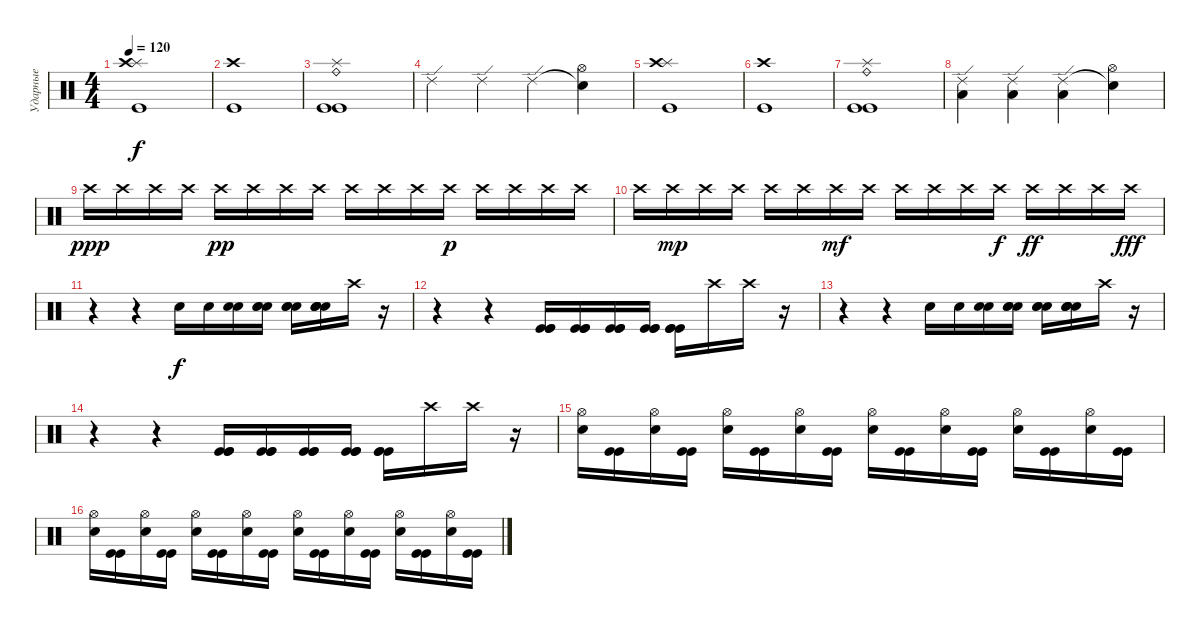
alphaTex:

\track ("Ударные" "Ударные") {instrument percussion}
\staff {score}
\articulation defaults
\ts (4 4)
\tempo 120
\clef neutral
\ks c
("Splash (hit)" "Crash high (hit)" "Kick (hit)").1{dy f} |
("Crash high (hit)" "Kick (hit)").1 |
("Splash (hit)" "Ride (bell)" "Kick (hit)" "Kick (hit)").1 |
"Ride (edge) 2".4 "Ride (edge) 2".4 "Ride (edge) 2".4 ("Snare (hit)"{t} "Hi-Hat (open)").4 |
("Splash (hit)" "Crash high (hit)" "Kick (hit)").1 |
("Crash high (hit)" "Kick (hit)").1 |
("Splash (hit)" "Ride (bell)" "Kick (hit)" "Kick (hit)").1 |
("Ride (edge) 2" "Low Tom (hit)").4 ("Ride (edge) 2" "Low Tom (hit)").4 ("Ride (edge) 2" "Low Tom (hit)").4 ("Snare (hit)"{t} "Hi-Hat (open)").4 |
"Crash high (hit)".16{dy ppp} "Crash high (hit)".16 "Crash high (hit)".16 "Crash high (hit)".16 "Crash high (hit)".16{dy pp} "Crash high (hit)".16 "Crash high (hit)".16 "Crash high (hit)".16 "Crash high (hit)".16 "Crash high (hit)".16 "Crash high (hit)".16 "Crash high (hit)".16{dy p} "Crash high (hit)".16 "Crash high (hit)".16 "Crash high (hit)".16 "Crash high (hit)".16 |
"Crash high (hit)".16 "Crash high (hit)".16{dy mp} "Crash high (hit)".16 "Crash high (hit)".16 "Crash high (hit)".16 "Crash high (hit)".16 "Crash high (hit)".16{dy mf} "Crash high (hit)".16 "Crash high (hit)".16 "Crash high (hit)".16 "Crash high (hit)".16 "Crash high (hit)".16{dy f} "Crash high (hit)".16{dy ff} "Crash high (hit)".16 "Crash high (hit)".16 "Crash high (hit)".16{dy fff} |
r.4 r.4 "Snare (hit) 2".16{dy f} "Snare (hit) 2".16 ("Snare (hit) 2" "Snare (hit) 2").16 ("Snare (hit) 2" "Snare (hit) 2" "Snare (hit) 2").16 ("Snare (hit) 2" "Snare (hit) 2" "Snare (hit) 2").16 ("Snare (hit) 2" "Snare (hit) 2" "Snare (hit) 2" "Snare (hit) 2").16 "Crash high (hit)".16 r.16 |
r.4 r.4 ("Kick (hit)" "Kick (hit)" "Kick (hit)").16 ("Kick (hit)" "Kick (hit)" "Kick (hit)").16 ("Kick (hit)" "Kick (hit)" "Kick (hit)").16 ("Kick (hit)" "Kick (hit)" "Kick (hit)").16 ("Kick (hit)" "Kick (hit)" "Kick (hit)").16 "Crash high (hit)".16 "Crash high (hit)".16 r.16 |
r.4 r.4 "Snare (hit) 2".16 "Snare (hit) 2".16 ("Snare (hit) 2" "Snare (hit) 2").16 ("Snare (hit) 2" "Snare (hit) 2" "Snare (hit) 2").16 ("Snare (hit) 2" "Snare (hit) 2" "Snare (hit) 2").16 ("Snare (hit) 2" "Snare (hit) 2" "Snare (hit) 2" "Snare (hit) 2").16 "Crash high (hit)".16 r.16 |
r.4 r.4 ("Kick (hit)" "Kick (hit)" "Kick (hit)").16 ("Kick (hit)" "Kick (hit)" "Kick (hit)").16 ("Kick (hit)" "Kick (hit)" "Kick (hit)").16 ("Kick (hit)" "Kick (hit)" "Kick (hit)").16 ("Kick (hit)" "Kick (hit)" "Kick (hit)").16 "Crash high (hit)".16 "Crash high (hit)".16 r.16 |
("Hi-Hat (open)" "Snare (hit) 2").16 ("Kick (hit)" "Kick (hit)").16 ("Hi-Hat (open)" "Snare (hit) 2").16 ("Kick (hit)" "Kick (hit)").16 ("Hi-Hat (open)" "Snare (hit) 2").16 ("Kick (hit)" "Kick (hit)").16 ("Hi-Hat (open)" "Snare (hit) 2").16 ("Kick (hit)" "Kick (hit)").16 ("Hi-Hat (open)" "Snare (hit) 2").16 ("Kick (hit)" "Kick (hit)").16 ("Hi-Hat (open)" "Snare (hit) 2").16 ("Kick (hit)" "Kick (hit)").16 ("Hi-Hat (open)" "Snare (hit) 2").16 ("Kick (hit)" "Kick (hit)").16 ("Hi-Hat (open)" "Snare (hit) 2").16 ("Kick (hit)" "Kick (hit)").16 |
("Hi-Hat (open)" "Snare (hit) 2").16 ("Kick (hit)" "Kick (hit)").16 ("Hi-Hat (open)" "Snare (hit) 2").16 ("Kick (hit)" "Kick (hit)").16 ("Hi-Hat (open)" "Snare (hit) 2").16 ("Kick (hit)" "Kick (hit)").16 ("Hi-Hat (open)" "Snare (hit) 2").16 ("Kick (hit)" "Kick (hit)").16 ("Hi-Hat (open)" "Snare (hit) 2").16 ("Kick (hit)" "Kick (hit)").16 ("Hi-Hat (open)" "Snare (hit) 2").16 ("Kick (hit)" "Kick (hit)").16 ("Hi-Hat (open)" "Snare (hit) 2").16 ("Kick (hit)" "Kick (hit)").16 ("Hi-Hat (open)" "Snare (hit) 2").16 ("Kick (hit)" "Kick (hit)").16
